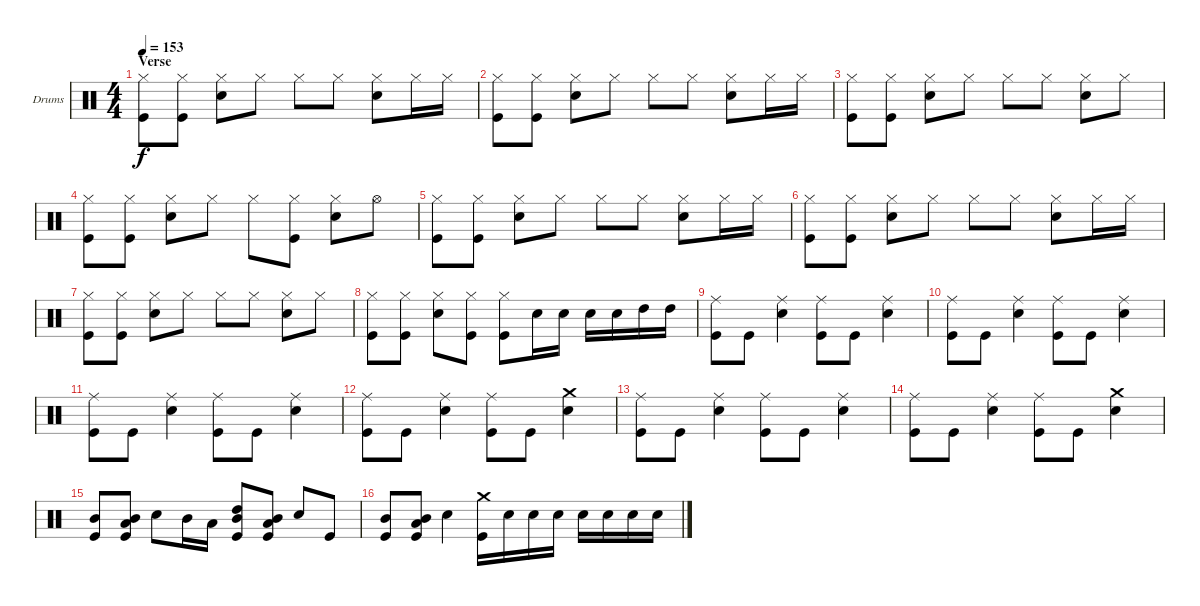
\bracketExtendMode groupsimilarinstruments
\firstSystemTrackNameOrientation horizontal
\otherSystemsTrackNameOrientation horizontal
\track ("Drumkit" "Drums") {instrument percussion}
\staff {score}
\articulation defaults
\ts (4 4)
\section ("" "Verse")
\tempo 153
\clef neutral
\ks c
("Hi-Hat (closed)" "Kick (hit)").8{dy f} ("Hi-Hat (closed)" "Kick (hit)").8 ("Hi-Hat (closed)" "Snare (hit) 2").8 "Hi-Hat (closed)".8 "Hi-Hat (closed)".8 "Hi-Hat (closed)".8 ("Hi-Hat (closed)" "Snare (hit) 2").8 "Hi-Hat (closed)".16 "Hi-Hat (closed)".16 |
("Hi-Hat (closed)" "Kick (hit)").8 ("Hi-Hat (closed)" "Kick (hit)").8 ("Hi-Hat (closed)" "Snare (hit) 2").8 "Hi-Hat (closed)".8 "Hi-Hat (closed)".8 "Hi-Hat (closed)".8 ("Hi-Hat (closed)" "Snare (hit) 2").8 "Hi-Hat (closed)".16 "Hi-Hat (closed)".16 |
("Hi-Hat (closed)" "Kick (hit)").8 ("Hi-Hat (closed)" "Kick (hit)").8 ("Hi-Hat (closed)" "Snare (hit) 2").8 "Hi-Hat (closed)".8 "Hi-Hat (closed)".8 "Hi-Hat (closed)".8 ("Hi-Hat (closed)" "Snare (hit) 2").8 "Hi-Hat (closed)".8 |
("Hi-Hat (closed)" "Kick (hit)").8 ("Hi-Hat (closed)" "Kick (hit)").8 ("Hi-Hat (closed)" "Snare (hit) 2").8 "Hi-Hat (closed)".8 "Hi-Hat (closed)".8 ("Hi-Hat (closed)" "Kick (hit)").8 ("Hi-Hat (closed)" "Snare (hit) 2").8 "Hi-Hat (open)".8 |
("Hi-Hat (closed)" "Kick (hit)").8 ("Hi-Hat (closed)" "Kick (hit)").8 ("Hi-Hat (closed)" "Snare (hit) 2").8 "Hi-Hat (closed)".8 "Hi-Hat (closed)".8 "Hi-Hat (closed)".8 ("Hi-Hat (closed)" "Snare (hit) 2").8 "Hi-Hat (closed)".16 "Hi-Hat (closed)".16 |
("Hi-Hat (closed)" "Kick (hit)").8 ("Hi-Hat (closed)" "Kick (hit)").8 ("Hi-Hat (closed)" "Snare (hit) 2").8 "Hi-Hat (closed)".8 "Hi-Hat (closed)".8 "Hi-Hat (closed)".8 ("Hi-Hat (closed)" "Snare (hit) 2").8 "Hi-Hat (closed)".16 "Hi-Hat (closed)".16 |
("Hi-Hat (closed)" "Kick (hit)").8 ("Hi-Hat (closed)" "Kick (hit)").8 ("Hi-Hat (closed)" "Snare (hit) 2").8 "Hi-Hat (closed)".8 "Hi-Hat (closed)".8 "Hi-Hat (closed)".8 ("Hi-Hat (closed)" "Snare (hit) 2").8 "Hi-Hat (closed)".8 |
("Hi-Hat (closed)" "Kick (hit)").8 ("Hi-Hat (closed)" "Kick (hit)").8 ("Hi-Hat (closed)" "Snare (hit) 2").8 ("Hi-Hat (closed)" "Kick (hit)").8 ("Hi-Hat (closed)" "Kick (hit)").8 "Snare (hit) 2".16 "Snare (hit) 2".16 "Snare (hit) 2".16 "Snare (hit) 2".16 "High Tom (hit)".16 "High Tom (hit)".16 |
("Ride (middle)" "Kick (hit)").8 "Kick (hit)".8 ("Ride (middle)" "Snare (hit) 2").4 ("Ride (middle)" "Kick (hit)").8 "Kick (hit)".8 ("Ride (middle)" "Snare (hit) 2").4 |
("Ride (middle)" "Kick (hit)").8 "Kick (hit)".8 ("Ride (middle)" "Snare (hit) 2").4 ("Ride (middle)" "Kick (hit)").8 "Kick (hit)".8 ("Ride (middle)" "Snare (hit) 2").4 |
("Ride (middle)" "Kick (hit)").8 "Kick (hit)".8 ("Ride (middle)" "Snare (hit) 2").4 ("Ride (middle)" "Kick (hit)").8 "Kick (hit)".8 ("Ride (middle)" "Snare (hit) 2").4 |
("Ride (middle)" "Kick (hit)").8 "Kick (hit)".8 ("Ride (middle)" "Snare (hit) 2").4 ("Ride (middle)" "Kick (hit)").8 "Kick (hit)".8 ("Crash medium (hit)" "Snare (hit) 2").4 |
("Ride (middle)" "Kick (hit)").8 "Kick (hit)".8 ("Ride (middle)" "Snare (hit) 2").4 ("Ride (middle)" "Kick (hit)").8 "Kick (hit)".8 ("Ride (middle)" "Snare (hit) 2").4 |
("Ride (middle)" "Kick (hit)").8 "Kick (hit)".8 ("Ride (middle)" "Snare (hit) 2").4 ("Ride (middle)" "Kick (hit)").8 "Kick (hit)".8 ("Crash medium (hit)" "Snare (hit) 2").4 |
("Mid Tom (hit)" "Kick (hit)").8 ("Low Tom (hit)" "Mid Tom (hit)" "Kick (hit)").8 "Snare (hit) 2".8 "Mid Tom (hit)".16 "Low Tom (hit)".16 ("High Tom (hit)" "Mid Tom (hit)" "Kick (hit)").8 ("Kick (hit)" "Mid Tom (hit)" "Low Tom (hit)").8 "Snare (hit) 2".8 "Kick (hit)".8 |
("Mid Tom (hit)" "Kick (hit)").8 ("Low Tom (hit)" "Mid Tom (hit)" "Kick (hit)").8 "Snare (hit) 2".4 ("Crash medium (hit)" "Kick (hit)").16 "Snare (hit) 2".16 "Snare (hit) 2".16 "Snare (hit) 2".16 "Snare (hit) 2".16 "Snare (hit) 2".16 "Snare (hit) 2".16 "Snare (hit) 2".16
